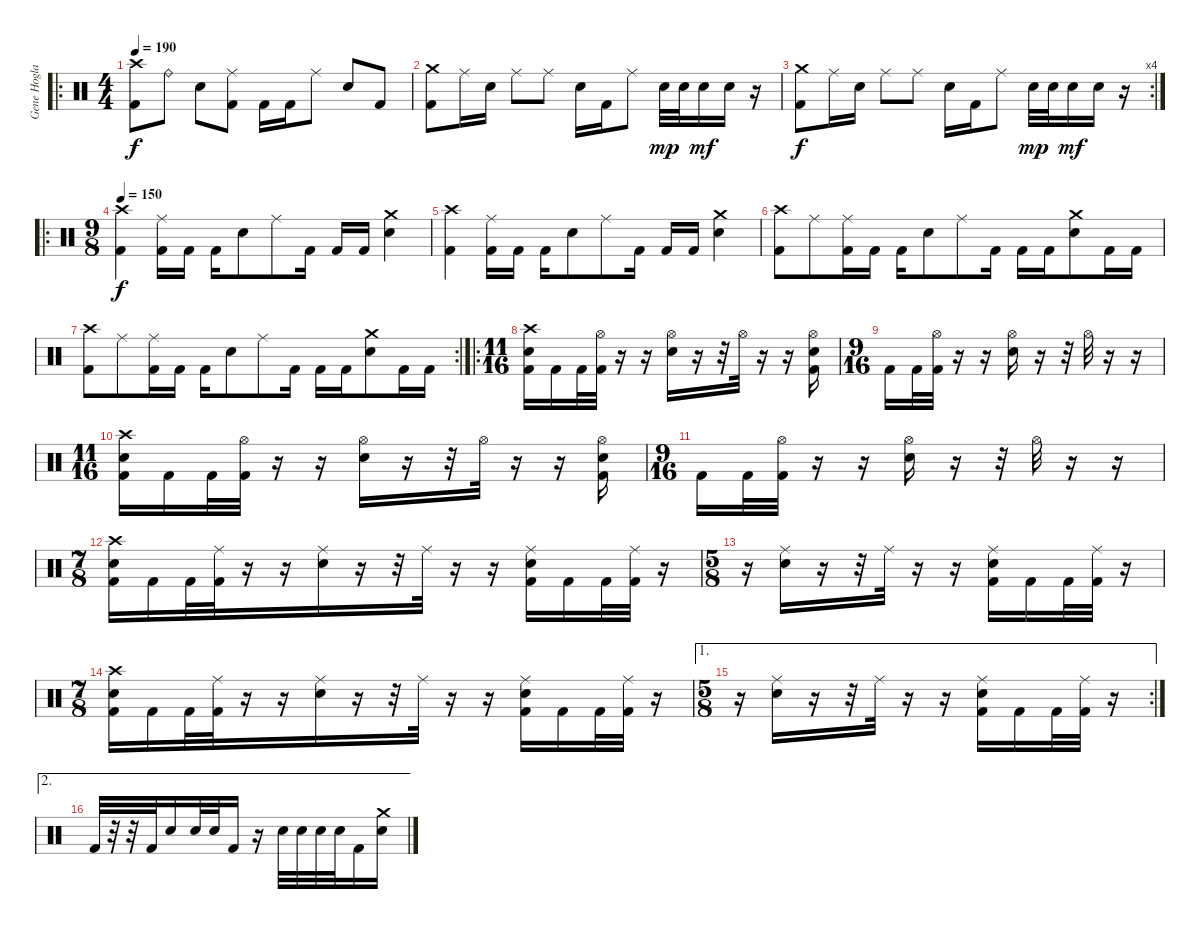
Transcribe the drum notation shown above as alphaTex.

\track ("Gene Hoglan" "Gene Hogla") {instrument percussion}
\staff {score}
\articulation defaults
\ro
\ts (4 4)
\tempo 190
\tempo 150
\tempo 190
\clef neutral
\ks c
("Crash high (hit)" "Kick (hit) 2").8{dy f} "Ride (bell)".8 "Electric Snare (hit)".8 ("Ride (middle)" "Kick (hit) 2").8 "Kick (hit) 2".16 "Kick (hit) 2".16 "Ride (middle)".8 "Electric Snare (hit)".8 "Kick (hit) 2".8 |
("Crash medium (hit)" "Kick (hit) 2").8 "Ride (middle)".16 "Electric Snare (hit)".16 "Ride (middle)".8 "Ride (middle)".8 "Electric Snare (hit)".16 "Kick (hit) 2".16 "Ride (middle)".8 "Electric Snare (hit)".32{dy mp} "Electric Snare (hit)".32 "Electric Snare (hit)".16{dy mf} "Electric Snare (hit)".16 r.16 |
\rc 4
("Crash medium (hit)" "Kick (hit) 2").8{dy f} "Ride (middle)".16 "Electric Snare (hit)".16 "Ride (middle)".8 "Ride (middle)".8 "Electric Snare (hit)".16 "Kick (hit) 2".16 "Ride (middle)".8 "Electric Snare (hit)".32{dy mp} "Electric Snare (hit)".32 "Electric Snare (hit)".16{dy mf} "Electric Snare (hit)".16 r.16 |
\ro
\ts (9 8)
\tempo 150
("Crash high (hit)" "Kick (hit) 2").4{dy f} ("Ride (middle)" "Kick (hit) 2").16 "Kick (hit) 2".16 "Kick (hit) 2".16 "Electric Snare (hit)".8 "Ride (middle)".8 "Kick (hit) 2".16 "Kick (hit) 2".16 "Kick (hit) 2".16 ("Crash medium (hit)" "Electric Snare (hit)").4 |
("Crash high (hit)" "Kick (hit) 2").4 ("Ride (middle)" "Kick (hit) 2").16 "Kick (hit) 2".16 "Kick (hit) 2".16 "Electric Snare (hit)".8 "Ride (middle)".8 "Kick (hit) 2".16 "Kick (hit) 2".16 "Kick (hit) 2".16 ("Crash medium (hit)" "Electric Snare (hit)").4 |
("Crash high (hit)" "Kick (hit) 2").8 "Ride (middle)".8 ("Ride (middle)" "Kick (hit) 2").16 "Kick (hit) 2".16 "Kick (hit) 2".16 "Electric Snare (hit)".8 "Ride (middle)".8 "Kick (hit) 2".16 "Kick (hit) 2".16 "Kick (hit) 2".16 ("Crash medium (hit)" "Electric Snare (hit)").8 "Kick (hit) 2".16 "Kick (hit) 2".16 |
\rc 2
("Crash high (hit)" "Kick (hit) 2").8 "Ride (middle)".8 ("Ride (middle)" "Kick (hit) 2").16 "Kick (hit) 2".16 "Kick (hit) 2".16 "Electric Snare (hit)".8 "Ride (middle)".8 "Kick (hit) 2".16 "Kick (hit) 2".16 "Kick (hit) 2".16 ("Crash medium (hit)" "Electric Snare (hit)").8 "Kick (hit) 2".16 "Kick (hit) 2".16 |
\ro
\ts (11 16)
("Crash high (hit)" "Electric Snare (hit)" "Kick (hit) 2").16 "Kick (hit) 2".16 "Kick (hit) 2".32 ("Hi-Hat (open)" "Kick (hit) 2").32 r.16 r.16 ("Hi-Hat (open)" "Electric Snare (hit)").16 r.16 r.32 "Hi-Hat (open)".32 r.16 r.16 ("Hi-Hat (open)" "Electric Snare (hit)" "Kick (hit) 2").16 |
\ts (9 16)
"Kick (hit) 2".16 "Kick (hit) 2".32 ("Hi-Hat (open)" "Kick (hit) 2").32 r.16 r.16 ("Hi-Hat (open)" "Electric Snare (hit)").16 r.16 r.32 "Hi-Hat (open)".32 r.16 r.16 |
\ts (11 16)
("Crash high (hit)" "Electric Snare (hit)" "Kick (hit) 2").16 "Kick (hit) 2".16 "Kick (hit) 2".32 ("Hi-Hat (open)" "Kick (hit) 2").32 r.16 r.16 ("Hi-Hat (open)" "Electric Snare (hit)").16 r.16 r.32 "Hi-Hat (open)".32 r.16 r.16 ("Hi-Hat (open)" "Electric Snare (hit)" "Kick (hit) 2").16 |
\ts (9 16)
"Kick (hit) 2".16 "Kick (hit) 2".32 ("Hi-Hat (open)" "Kick (hit) 2").32 r.16 r.16 ("Hi-Hat (open)" "Electric Snare (hit)").16 r.16 r.32 "Hi-Hat (open)".32 r.16 r.16 |
\ts (7 8)
("Crash high (hit)" "Electric Snare (hit)" "Kick (hit) 2").16 "Kick (hit) 2".16 "Kick (hit) 2".32 ("Ride (middle)" "Kick (hit) 2").32 r.16 r.16 ("Ride (middle)" "Electric Snare (hit)").16 r.16 r.32 "Ride (middle)".32 r.16 r.16 ("Ride (middle)" "Electric Snare (hit)" "Kick (hit) 2").16 "Kick (hit) 2".16 "Kick (hit) 2".32 ("Ride (middle)" "Kick (hit) 2").32 r.16 |
\ts (5 8)
r.16 ("Ride (middle)" "Electric Snare (hit)").16 r.16 r.32 "Ride (middle)".32 r.16 r.16 ("Ride (middle)" "Electric Snare (hit)" "Kick (hit) 2").16 "Kick (hit) 2".16 "Kick (hit) 2".32 ("Ride (middle)" "Kick (hit) 2").32 r.16 |
\ts (7 8)
("Crash high (hit)" "Electric Snare (hit)" "Kick (hit) 2").16 "Kick (hit) 2".16 "Kick (hit) 2".32 ("Ride (middle)" "Kick (hit) 2").32 r.16 r.16 ("Ride (middle)" "Electric Snare (hit)").16 r.16 r.32 "Ride (middle)".32 r.16 r.16 ("Ride (middle)" "Electric Snare (hit)" "Kick (hit) 2").16 "Kick (hit) 2".16 "Kick (hit) 2".32 ("Ride (middle)" "Kick (hit) 2").32 r.16 |
\ae 1
\rc 2
\ts (5 8)
r.16 ("Ride (middle)" "Electric Snare (hit)").16 r.16 r.32 "Ride (middle)".32 r.16 r.16 ("Ride (middle)" "Electric Snare (hit)" "Kick (hit) 2").16 "Kick (hit) 2".16 "Kick (hit) 2".32 ("Ride (middle)" "Kick (hit) 2").32 r.16 |
\ae 2 "Kick (hit) 2".32
r.32 r.32 "Kick (hit) 2".32 "Electric Snare (hit)".16 "Electric Snare (hit)".32 "Electric Snare (hit)".32 "Kick (hit) 2".16 r.16 "Electric Snare (hit)".32 "Electric Snare (hit)".32 "Electric Snare (hit)".32 "Electric Snare (hit)".32 "Kick (hit) 2".16 ("Crash medium (hit)" "Electric Snare (hit)").16
